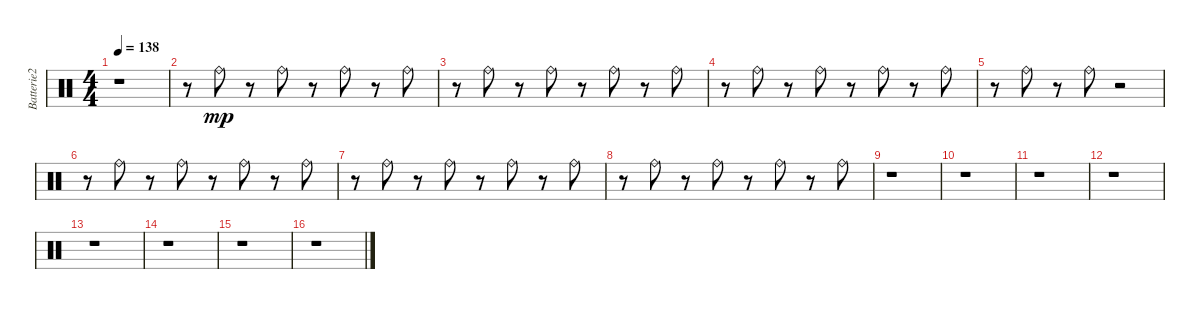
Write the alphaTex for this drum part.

\track ("Batterie2" "Batterie2") {instrument percussion}
\staff {score}
\articulation defaults
\ts (4 4)
\tempo 138
\clef neutral
\ks c
r.1{dy mp} |
r.8 "Ride (bell)".8 r.8 "Ride (bell)".8 r.8 "Ride (bell)".8 r.8 "Ride (bell)".8 |
r.8 "Ride (bell)".8 r.8 "Ride (bell)".8 r.8 "Ride (bell)".8 r.8 "Ride (bell)".8 |
r.8 "Ride (bell)".8 r.8 "Ride (bell)".8 r.8 "Ride (bell)".8 r.8 "Ride (bell)".8 |
r.8 "Ride (bell)".8 r.8 "Ride (bell)".8 r.2 |
r.8 "Ride (bell)".8 r.8 "Ride (bell)".8 r.8 "Ride (bell)".8 r.8 "Ride (bell)".8 |
r.8 "Ride (bell)".8 r.8 "Ride (bell)".8 r.8 "Ride (bell)".8 r.8 "Ride (bell)".8 |
r.8 "Ride (bell)".8 r.8 "Ride (bell)".8 r.8 "Ride (bell)".8 r.8 "Ride (bell)".8 |
r.1 |
r.1 |
r.1 |
r.1 |
r.1 |
r.1 |
r.1 |
r.1
